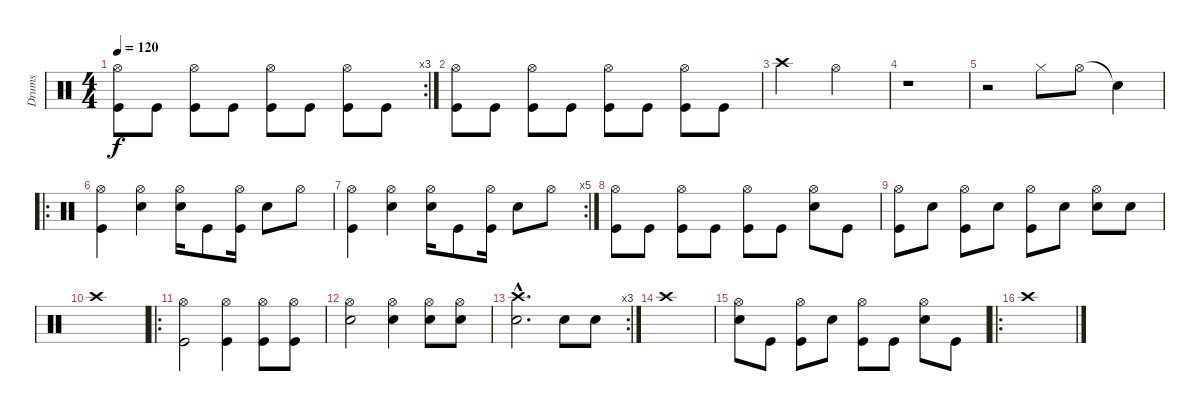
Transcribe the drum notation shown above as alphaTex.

\track ("Drums" "Drums") {instrument percussion}
\staff {score}
\articulation defaults
\rc 3
\ts (4 4)
\tempo 120
\clef neutral
\ks c
("Hi-Hat (open)" "Kick (hit)").8{dy f} "Kick (hit)".8 ("Hi-Hat (open)" "Kick (hit)").8 "Kick (hit)".8 ("Hi-Hat (open)" "Kick (hit)").8 "Kick (hit)".8 ("Hi-Hat (open)" "Kick (hit)").8 "Kick (hit)".8 |
("Hi-Hat (open)" "Kick (hit)").8 "Kick (hit)".8 ("Hi-Hat (open)" "Kick (hit)").8 "Kick (hit)".8 ("Hi-Hat (open)" "Kick (hit)").8 "Kick (hit)".8 ("Hi-Hat (open)" "Kick (hit)").8 "Kick (hit)".8 |
"Crash high (hit)".2 "Hi-Hat (open)".2 |
r.1 |
r.2 "Hi-Hat (closed)".8 "Hi-Hat (open)".8 "Snare (hit)"{t}.4 |
\ro
("Hi-Hat (open)" "Kick (hit)").4 ("Hi-Hat (open)" "Snare (hit) 2").4 ("Hi-Hat (open)" "Snare (hit) 2").16 "Kick (hit)".8 ("Hi-Hat (open)" "Kick (hit)").16 "Snare (hit) 2".8 "Hi-Hat (open)".8 |
\rc 5
("Hi-Hat (open)" "Kick (hit)").4 ("Hi-Hat (open)" "Snare (hit) 2").4 ("Hi-Hat (open)" "Snare (hit) 2").16 "Kick (hit)".8 ("Hi-Hat (open)" "Kick (hit)").16 "Snare (hit) 2".8 "Hi-Hat (open)".8 |
("Hi-Hat (open)" "Kick (hit)").8 "Kick (hit)".8 ("Hi-Hat (open)" "Kick (hit)").8 "Kick (hit)".8 ("Hi-Hat (open)" "Kick (hit)").8 "Kick (hit)".8 ("Hi-Hat (open)" "Snare (hit) 2").8 "Kick (hit)".8 |
("Hi-Hat (open)" "Kick (hit)").8 "Snare (hit) 2".8 ("Hi-Hat (open)" "Kick (hit)").8 "Snare (hit) 2".8 ("Hi-Hat (open)" "Kick (hit)").8 "Snare (hit) 2".8 ("Hi-Hat (open)" "Snare (hit) 2").8 "Snare (hit) 2".8 |
"Crash high (hit)".1 |
\ro
("Hi-Hat (open)" "Kick (hit)").2 ("Hi-Hat (open)" "Kick (hit)").4 ("Hi-Hat (open)" "Kick (hit)").8 ("Hi-Hat (open)" "Kick (hit)").8 |
("Hi-Hat (open)" "Snare (hit) 2").2 ("Hi-Hat (open)" "Snare (hit) 2").4 ("Hi-Hat (open)" "Snare (hit) 2").8 ("Hi-Hat (open)" "Snare (hit) 2").8 |
\rc 3
("Crash high (hit)"{hac} "Snare (hit) 2"{hac}).2{d} "Snare (hit) 2".8 "Snare (hit) 2".8 |
"Crash high (hit)".1 |
("Hi-Hat (open)" "Snare (hit) 2").8 "Kick (hit)".8 ("Hi-Hat (open)" "Kick (hit)").8 "Snare (hit) 2".8 ("Hi-Hat (open)" "Kick (hit)").8 "Kick (hit)".8 ("Hi-Hat (open)" "Snare (hit) 2").8 "Kick (hit)".8 |
\ro "Crash high (hit)".1
